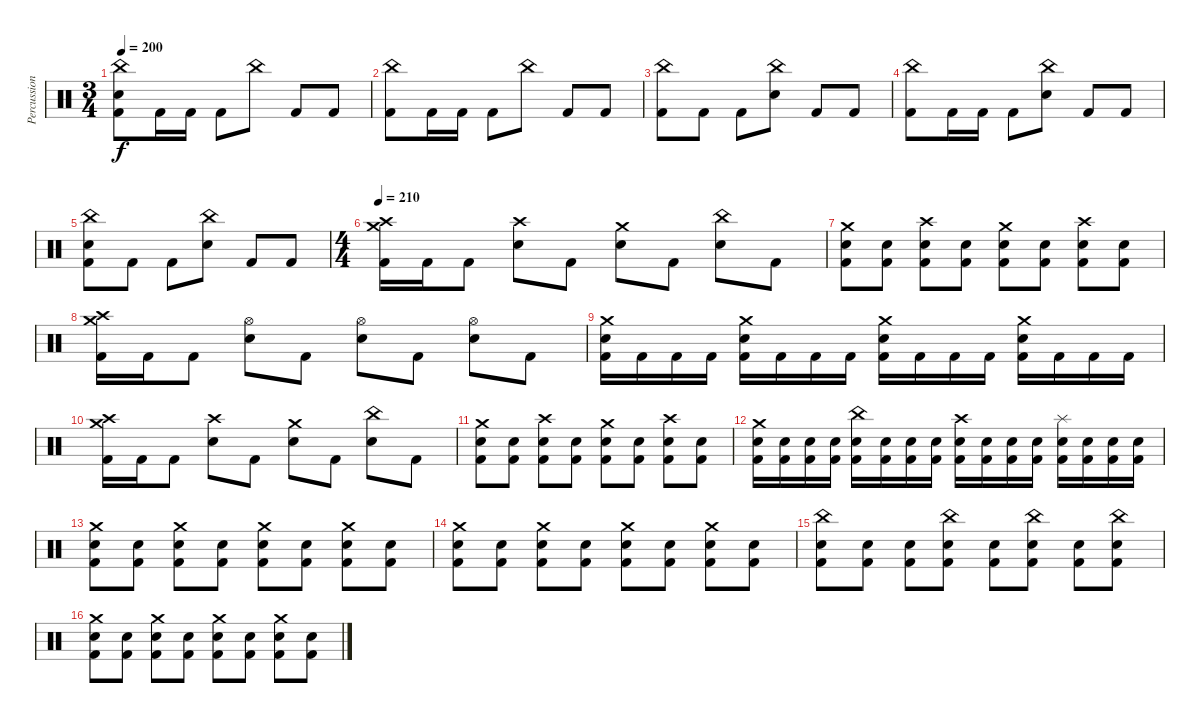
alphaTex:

\track ("Percussion" "Percussion") {instrument percussion}
\staff {score}
\articulation defaults
\ts (3 4)
\tempo 200
\clef neutral
\ks c
("China (hit)" "Snare (hit) 2" "Kick (hit) 2").8{dy f} "Kick (hit) 2".16 "Kick (hit) 2".16 "Kick (hit) 2".8 "China (hit)".8 "Kick (hit) 2".8 "Kick (hit) 2".8 |
("China (hit)" "Kick (hit) 2").8 "Kick (hit) 2".16 "Kick (hit) 2".16 "Kick (hit) 2".8 "China (hit)".8 "Kick (hit) 2".8 "Kick (hit) 2".8 |
("China (hit)" "Kick (hit) 2").8 "Kick (hit) 2".8 "Kick (hit) 2".8 ("China (hit)" "Snare (hit) 2").8 "Kick (hit) 2".8 "Kick (hit) 2".8 |
("China (hit)" "Kick (hit) 2").8 "Kick (hit) 2".16 "Kick (hit) 2".16 "Kick (hit) 2".8 ("China (hit)" "Snare (hit) 2").8 "Kick (hit) 2".8 "Kick (hit) 2".8 |
("China (hit)" "Snare (hit) 2" "Kick (hit) 2").8 "Kick (hit) 2".8 "Kick (hit) 2".8 ("China (hit)" "Snare (hit) 2").8 "Kick (hit) 2".8 "Kick (hit) 2".8 |
\ts (4 4)
\tempo 210
("Crash medium (hit)" "Crash high (hit)" "Kick (hit) 2").16 "Kick (hit) 2".16 "Kick (hit) 2".8 ("Crash high (hit)" "Snare (hit) 2").8 "Kick (hit) 2".8 ("Crash medium (hit)" "Snare (hit) 2").8 "Kick (hit) 2".8 ("China (hit)" "Snare (hit) 2").8 "Kick (hit) 2".8 |
("Crash medium (hit)" "Snare (hit) 2" "Kick (hit) 2").8 ("Snare (hit) 2" "Kick (hit) 2").8 ("Crash high (hit)" "Snare (hit) 2" "Kick (hit) 2").8 ("Snare (hit) 2" "Kick (hit) 2").8 ("Crash medium (hit)" "Snare (hit) 2" "Kick (hit) 2").8 ("Snare (hit) 2" "Kick (hit) 2").8 ("Crash high (hit)" "Snare (hit) 2" "Kick (hit) 2").8 ("Snare (hit) 2" "Kick (hit) 2").8 |
("Crash medium (hit)" "Crash high (hit)" "Kick (hit) 2").16 "Kick (hit) 2".16 "Kick (hit) 2".8 ("Hi-Hat (open)" "Snare (hit) 2").8 "Kick (hit) 2".8 ("Hi-Hat (open)" "Snare (hit) 2").8 "Kick (hit) 2".8 ("Hi-Hat (open)" "Snare (hit) 2").8 "Kick (hit) 2".8 |
("Crash medium (hit)" "Snare (hit) 2" "Kick (hit) 2").16 "Kick (hit) 2".16 "Kick (hit) 2".16 "Kick (hit) 2".16 ("Crash medium (hit)" "Snare (hit) 2" "Kick (hit) 2").16 "Kick (hit) 2".16 "Kick (hit) 2".16 "Kick (hit) 2".16 ("Crash medium (hit)" "Snare (hit) 2" "Kick (hit) 2").16 "Kick (hit) 2".16 "Kick (hit) 2".16 "Kick (hit) 2".16 ("Crash medium (hit)" "Snare (hit) 2" "Kick (hit) 2").16 "Kick (hit) 2".16 "Kick (hit) 2".16 "Kick (hit) 2".16 |
("Crash medium (hit)" "Crash high (hit)" "Kick (hit) 2").16 "Kick (hit) 2".16 "Kick (hit) 2".8 ("Crash high (hit)" "Snare (hit) 2").8 "Kick (hit) 2".8 ("Crash medium (hit)" "Snare (hit) 2").8 "Kick (hit) 2".8 ("China (hit)" "Snare (hit) 2").8 "Kick (hit) 2".8 |
("Crash medium (hit)" "Snare (hit) 2" "Kick (hit) 2").8 ("Snare (hit) 2" "Kick (hit) 2").8 ("Crash high (hit)" "Snare (hit) 2" "Kick (hit) 2").8 ("Snare (hit) 2" "Kick (hit) 2").8 ("Crash medium (hit)" "Snare (hit) 2" "Kick (hit) 2").8 ("Snare (hit) 2" "Kick (hit) 2").8 ("Crash high (hit)" "Snare (hit) 2" "Kick (hit) 2").8 ("Snare (hit) 2" "Kick (hit) 2").8 |
("Crash medium (hit)" "Snare (hit) 2" "Kick (hit) 2").16 ("Snare (hit) 2" "Kick (hit) 2").16 ("Snare (hit) 2" "Kick (hit) 2").16 ("Snare (hit) 2" "Kick (hit) 2").16 ("China (hit)" "Snare (hit) 2" "Kick (hit) 2").16 ("Snare (hit) 2" "Kick (hit) 2").16 ("Snare (hit) 2" "Kick (hit) 2").16 ("Snare (hit) 2" "Kick (hit) 2").16 ("Crash high (hit)" "Snare (hit) 2" "Kick (hit) 2").16 ("Snare (hit) 2" "Kick (hit) 2").16 ("Snare (hit) 2" "Kick (hit) 2").16 ("Snare (hit) 2" "Kick (hit) 2").16 ("Splash (hit)" "Snare (hit) 2" "Kick (hit) 2").16 ("Snare (hit) 2" "Kick (hit) 2").16 ("Snare (hit) 2" "Kick (hit) 2").16 ("Snare (hit) 2" "Kick (hit) 2").16 |
("Crash medium (hit)" "Snare (hit) 2" "Kick (hit) 2").8 ("Snare (hit) 2" "Kick (hit) 2").8 ("Crash medium (hit)" "Snare (hit) 2" "Kick (hit) 2").8 ("Snare (hit) 2" "Kick (hit) 2").8 ("Crash medium (hit)" "Snare (hit) 2" "Kick (hit) 2").8 ("Snare (hit) 2" "Kick (hit) 2").8 ("Crash medium (hit)" "Snare (hit) 2" "Kick (hit) 2").8 ("Snare (hit) 2" "Kick (hit) 2").8 |
("Crash medium (hit)" "Snare (hit) 2" "Kick (hit) 2").8 ("Snare (hit) 2" "Kick (hit) 2").8 ("Crash medium (hit)" "Snare (hit) 2" "Kick (hit) 2").8 ("Snare (hit) 2" "Kick (hit) 2").8 ("Crash medium (hit)" "Snare (hit) 2" "Kick (hit) 2").8 ("Snare (hit) 2" "Kick (hit) 2").8 ("Crash medium (hit)" "Snare (hit) 2" "Kick (hit) 2").8 ("Snare (hit) 2" "Kick (hit) 2").8 |
("China (hit)" "Snare (hit) 2" "Kick (hit) 2").8 ("Snare (hit) 2" "Kick (hit) 2").8 ("Snare (hit) 2" "Kick (hit) 2").8 ("China (hit)" "Snare (hit) 2" "Kick (hit) 2").8 ("Snare (hit) 2" "Kick (hit) 2").8 ("China (hit)" "Snare (hit) 2" "Kick (hit) 2").8 ("Snare (hit) 2" "Kick (hit) 2").8 ("China (hit)" "Snare (hit) 2" "Kick (hit) 2").8 |
("Crash medium (hit)" "Snare (hit) 2" "Kick (hit) 2").8 ("Snare (hit) 2" "Kick (hit) 2").8 ("Crash medium (hit)" "Snare (hit) 2" "Kick (hit) 2").8 ("Snare (hit) 2" "Kick (hit) 2").8 ("Crash medium (hit)" "Snare (hit) 2" "Kick (hit) 2").8 ("Snare (hit) 2" "Kick (hit) 2").8 ("Crash medium (hit)" "Snare (hit) 2" "Kick (hit) 2").8 ("Snare (hit) 2" "Kick (hit) 2").8
